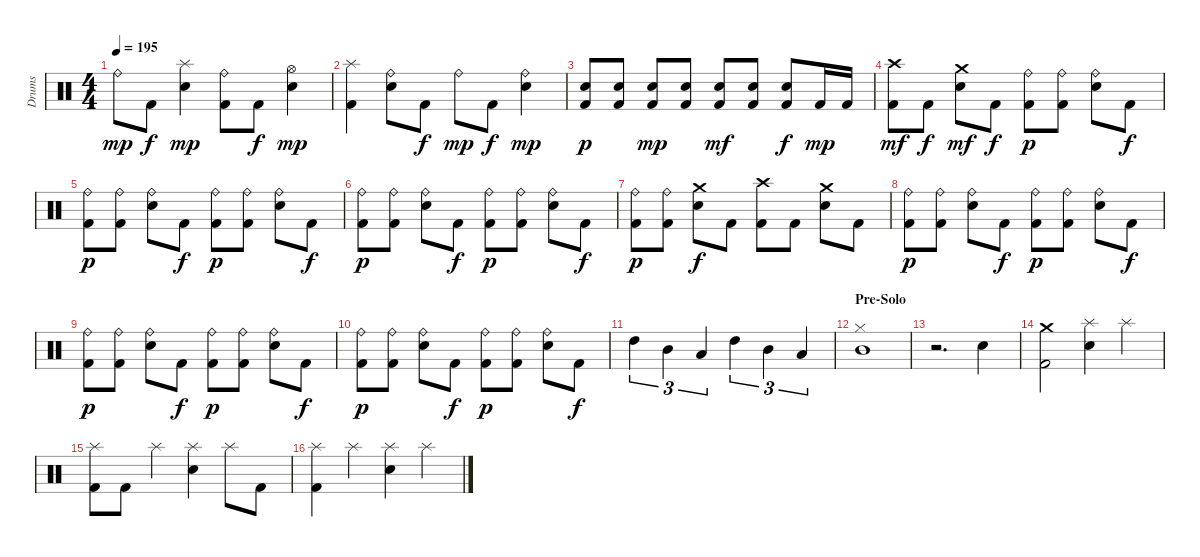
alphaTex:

\track ("Drums" "Drums") {instrument percussion}
\staff {score}
\articulation defaults
\ts (4 4)
\tempo 195
\clef neutral
\ks c "Ride (bell)".8{dy mp} "Kick (hit) 2".8{dy f}
("Splash (hit)" "Electric Snare (hit)").4{dy mp} ("Ride (bell)" "Kick (hit) 2").8 "Kick (hit) 2".8{dy f} ("Hi-Hat (open)" "Electric Snare (hit)").4{dy mp} |
("Splash (hit)" "Kick (hit) 2").4 ("Ride (bell)" "Electric Snare (hit)").8 "Kick (hit) 2".8{dy f} "Ride (bell)".8{dy mp} "Kick (hit) 2".8{dy f} ("Ride (bell)" "Electric Snare (hit)").4{dy mp} |
("Electric Snare (hit)" "Kick (hit) 2").8{dy p} ("Electric Snare (hit)" "Kick (hit) 2").8 ("Electric Snare (hit)" "Kick (hit) 2").8{dy mp} ("Electric Snare (hit)" "Kick (hit) 2").8 ("Electric Snare (hit)" "Kick (hit) 2").8{dy mf} ("Electric Snare (hit)" "Kick (hit) 2").8 ("Electric Snare (hit)" "Kick (hit) 2").8{dy f} "Kick (hit) 2".16{dy mp} "Kick (hit) 2".16 |
("Crash high (hit)" "Kick (hit) 2").8{dy mf} "Kick (hit) 2".8{dy f} ("Crash medium (hit)" "Electric Snare (hit)").8{dy mf} "Kick (hit) 2".8{dy f} ("Ride (bell)" "Kick (hit) 2").8{dy p} ("Ride (bell)" "Kick (hit) 2").8 ("Ride (bell)" "Electric Snare (hit)").8 "Kick (hit) 2".8{dy f} |
("Ride (bell)" "Kick (hit) 2").8{dy p} ("Ride (bell)" "Kick (hit) 2").8 ("Ride (bell)" "Electric Snare (hit)").8 "Kick (hit) 2".8{dy f} ("Ride (bell)" "Kick (hit) 2").8{dy p} ("Ride (bell)" "Kick (hit) 2").8 ("Ride (bell)" "Electric Snare (hit)").8 "Kick (hit) 2".8{dy f} |
("Ride (bell)" "Kick (hit) 2").8{dy p} ("Ride (bell)" "Kick (hit) 2").8 ("Ride (bell)" "Electric Snare (hit)").8 "Kick (hit) 2".8{dy f} ("Ride (bell)" "Kick (hit) 2").8{dy p} ("Ride (bell)" "Kick (hit) 2").8 ("Ride (bell)" "Electric Snare (hit)").8 "Kick (hit) 2".8{dy f} |
("Ride (bell)" "Kick (hit) 2").8{dy p} ("Ride (bell)" "Kick (hit) 2").8 ("Crash medium (hit)" "Electric Snare (hit)").8{dy f} "Kick (hit) 2".8 ("Crash high (hit)" "Kick (hit) 2").8 "Kick (hit) 2".8 ("Crash medium (hit)" "Electric Snare (hit)").8 "Kick (hit) 2".8 |
("Ride (bell)" "Kick (hit) 2").8{dy p} ("Ride (bell)" "Kick (hit) 2").8 ("Ride (bell)" "Electric Snare (hit)").8 "Kick (hit) 2".8{dy f} ("Ride (bell)" "Kick (hit) 2").8{dy p} ("Ride (bell)" "Kick (hit) 2").8 ("Ride (bell)" "Electric Snare (hit)").8 "Kick (hit) 2".8{dy f} |
("Ride (bell)" "Kick (hit) 2").8{dy p} ("Ride (bell)" "Kick (hit) 2").8 ("Ride (bell)" "Electric Snare (hit)").8 "Kick (hit) 2".8{dy f} ("Ride (bell)" "Kick (hit) 2").8{dy p} ("Ride (bell)" "Kick (hit) 2").8 ("Ride (bell)" "Electric Snare (hit)").8 "Kick (hit) 2".8{dy f} |
("Ride (bell)" "Kick (hit) 2").8{dy p} ("Ride (bell)" "Kick (hit) 2").8 ("Ride (bell)" "Electric Snare (hit)").8 "Kick (hit) 2".8{dy f} ("Ride (bell)" "Kick (hit) 2").8{dy p} ("Ride (bell)" "Kick (hit) 2").8 ("Ride (bell)" "Electric Snare (hit)").8 "Kick (hit) 2".8{dy f} |
"High Tom (hit)".4{tu (3 2)} "Mid Tom (hit)".4{tu (3 2)} "Low Tom (hit)".4{tu (3 2)} "High Tom (hit)".4{tu (3 2)} "Mid Tom (hit)".4{tu (3 2)} "Low Tom (hit)".4{tu (3 2)} |
\section ("" "Pre-Solo")
("Hi-Hat (closed)" "Mid Tom (hit)").1 |
r.2{d} "Electric Snare (hit)".4 |
("Crash medium (hit)" "Kick (hit) 2").2 ("Splash (hit)" "Electric Snare (hit)").4 "Splash (hit)".4 |
("Splash (hit)" "Kick (hit) 2").8 "Kick (hit) 2".8 "Splash (hit)".4 ("Splash (hit)" "Electric Snare (hit)").4 "Splash (hit)".8 "Kick (hit) 2".8 |
("Splash (hit)" "Kick (hit) 2").4 "Splash (hit)".4 ("Splash (hit)" "Electric Snare (hit)").4 "Splash (hit)".4
